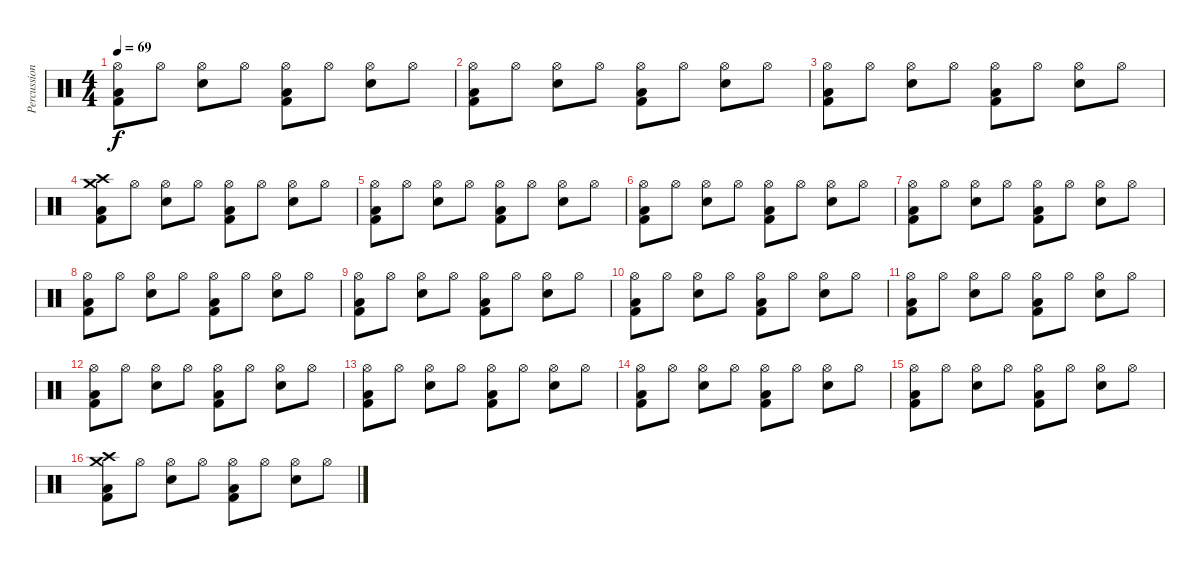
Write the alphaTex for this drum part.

\track ("Percussions" "Percussion") {instrument percussion}
\staff {score}
\articulation defaults
\ts (4 4)
\tempo 69
\clef neutral
\ks c
("Hi-Hat (open)" "Low Floor Tom (hit)" "Kick (hit) 2").8{dy f} "Hi-Hat (open)".8 ("Hi-Hat (open)" "Electric Snare (hit)").8 "Hi-Hat (open)".8 ("Hi-Hat (open)" "Low Floor Tom (hit)" "Kick (hit) 2").8 "Hi-Hat (open)".8 ("Hi-Hat (open)" "Electric Snare (hit)").8 "Hi-Hat (open)".8 |
("Hi-Hat (open)" "Low Floor Tom (hit)" "Kick (hit) 2").8 "Hi-Hat (open)".8 ("Hi-Hat (open)" "Electric Snare (hit)").8 "Hi-Hat (open)".8 ("Hi-Hat (open)" "Low Floor Tom (hit)" "Kick (hit) 2").8 "Hi-Hat (open)".8 ("Hi-Hat (open)" "Electric Snare (hit)").8 "Hi-Hat (open)".8 |
("Hi-Hat (open)" "Low Floor Tom (hit)" "Kick (hit) 2").8 "Hi-Hat (open)".8 ("Hi-Hat (open)" "Electric Snare (hit)").8 "Hi-Hat (open)".8 ("Hi-Hat (open)" "Low Floor Tom (hit)" "Kick (hit) 2").8 "Hi-Hat (open)".8 ("Hi-Hat (open)" "Electric Snare (hit)").8 "Hi-Hat (open)".8 |
("Crash medium (hit)" "Crash high (hit)" "Low Floor Tom (hit)" "Kick (hit) 2").8 "Hi-Hat (open)".8 ("Hi-Hat (open)" "Electric Snare (hit)").8 "Hi-Hat (open)".8 ("Hi-Hat (open)" "Low Floor Tom (hit)" "Kick (hit) 2").8 "Hi-Hat (open)".8 ("Hi-Hat (open)" "Electric Snare (hit)").8 "Hi-Hat (open)".8 |
("Hi-Hat (open)" "Low Floor Tom (hit)" "Kick (hit) 2").8 "Hi-Hat (open)".8 ("Hi-Hat (open)" "Electric Snare (hit)").8 "Hi-Hat (open)".8 ("Hi-Hat (open)" "Low Floor Tom (hit)" "Kick (hit) 2").8 "Hi-Hat (open)".8 ("Hi-Hat (open)" "Electric Snare (hit)").8 "Hi-Hat (open)".8 |
("Hi-Hat (open)" "Low Floor Tom (hit)" "Kick (hit) 2").8 "Hi-Hat (open)".8 ("Hi-Hat (open)" "Electric Snare (hit)").8 "Hi-Hat (open)".8 ("Hi-Hat (open)" "Low Floor Tom (hit)" "Kick (hit) 2").8 "Hi-Hat (open)".8 ("Hi-Hat (open)" "Electric Snare (hit)").8 "Hi-Hat (open)".8 |
("Hi-Hat (open)" "Low Floor Tom (hit)" "Kick (hit) 2").8 "Hi-Hat (open)".8 ("Hi-Hat (open)" "Electric Snare (hit)").8 "Hi-Hat (open)".8 ("Hi-Hat (open)" "Low Floor Tom (hit)" "Kick (hit) 2").8 "Hi-Hat (open)".8 ("Hi-Hat (open)" "Electric Snare (hit)").8 "Hi-Hat (open)".8 |
("Hi-Hat (open)" "Low Floor Tom (hit)" "Kick (hit) 2").8 "Hi-Hat (open)".8 ("Hi-Hat (open)" "Electric Snare (hit)").8 "Hi-Hat (open)".8 ("Hi-Hat (open)" "Low Floor Tom (hit)" "Kick (hit) 2").8 "Hi-Hat (open)".8 ("Hi-Hat (open)" "Electric Snare (hit)").8 "Hi-Hat (open)".8 |
("Hi-Hat (open)" "Low Floor Tom (hit)" "Kick (hit) 2").8 "Hi-Hat (open)".8 ("Hi-Hat (open)" "Electric Snare (hit)").8 "Hi-Hat (open)".8 ("Hi-Hat (open)" "Low Floor Tom (hit)" "Kick (hit) 2").8 "Hi-Hat (open)".8 ("Hi-Hat (open)" "Electric Snare (hit)").8 "Hi-Hat (open)".8 |
("Hi-Hat (open)" "Low Floor Tom (hit)" "Kick (hit) 2").8 "Hi-Hat (open)".8 ("Hi-Hat (open)" "Electric Snare (hit)").8 "Hi-Hat (open)".8 ("Hi-Hat (open)" "Low Floor Tom (hit)" "Kick (hit) 2").8 "Hi-Hat (open)".8 ("Hi-Hat (open)" "Electric Snare (hit)").8 "Hi-Hat (open)".8 |
("Hi-Hat (open)" "Low Floor Tom (hit)" "Kick (hit) 2").8 "Hi-Hat (open)".8 ("Hi-Hat (open)" "Electric Snare (hit)").8 "Hi-Hat (open)".8 ("Hi-Hat (open)" "Low Floor Tom (hit)" "Kick (hit) 2").8 "Hi-Hat (open)".8 ("Hi-Hat (open)" "Electric Snare (hit)").8 "Hi-Hat (open)".8 |
("Hi-Hat (open)" "Low Floor Tom (hit)" "Kick (hit) 2").8 "Hi-Hat (open)".8 ("Hi-Hat (open)" "Electric Snare (hit)").8 "Hi-Hat (open)".8 ("Hi-Hat (open)" "Low Floor Tom (hit)" "Kick (hit) 2").8 "Hi-Hat (open)".8 ("Hi-Hat (open)" "Electric Snare (hit)").8 "Hi-Hat (open)".8 |
("Hi-Hat (open)" "Low Floor Tom (hit)" "Kick (hit) 2").8 "Hi-Hat (open)".8 ("Hi-Hat (open)" "Electric Snare (hit)").8 "Hi-Hat (open)".8 ("Hi-Hat (open)" "Low Floor Tom (hit)" "Kick (hit) 2").8 "Hi-Hat (open)".8 ("Hi-Hat (open)" "Electric Snare (hit)").8 "Hi-Hat (open)".8 |
("Hi-Hat (open)" "Low Floor Tom (hit)" "Kick (hit) 2").8 "Hi-Hat (open)".8 ("Hi-Hat (open)" "Electric Snare (hit)").8 "Hi-Hat (open)".8 ("Hi-Hat (open)" "Low Floor Tom (hit)" "Kick (hit) 2").8 "Hi-Hat (open)".8 ("Hi-Hat (open)" "Electric Snare (hit)").8 "Hi-Hat (open)".8 |
("Hi-Hat (open)" "Low Floor Tom (hit)" "Kick (hit) 2").8 "Hi-Hat (open)".8 ("Hi-Hat (open)" "Electric Snare (hit)").8 "Hi-Hat (open)".8 ("Hi-Hat (open)" "Low Floor Tom (hit)" "Kick (hit) 2").8 "Hi-Hat (open)".8 ("Hi-Hat (open)" "Electric Snare (hit)").8 "Hi-Hat (open)".8 |
("Crash medium (hit)" "Crash high (hit)" "Low Floor Tom (hit)" "Kick (hit) 2").8 "Hi-Hat (open)".8 ("Hi-Hat (open)" "Electric Snare (hit)").8 "Hi-Hat (open)".8 ("Hi-Hat (open)" "Low Floor Tom (hit)" "Kick (hit) 2").8 "Hi-Hat (open)".8 ("Hi-Hat (open)" "Electric Snare (hit)").8 "Hi-Hat (open)".8
